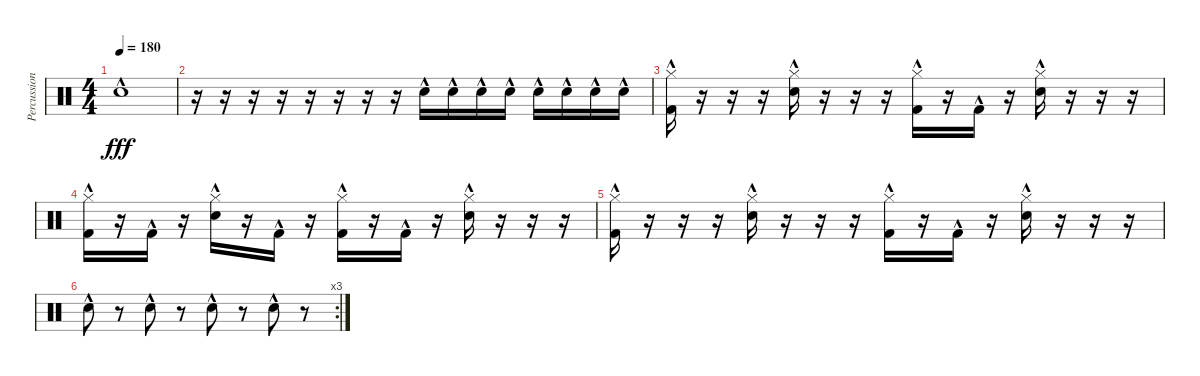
\track ("Percussion" "Percussion") {instrument percussion bank 2}
\staff {score}
\articulation defaults
\ts (4 4)
\tempo 180
\clef neutral
\ks c "Snare (hit) 2"{hac}.1{dy fff}
|
r.16 r.16 r.16 r.16 r.16 r.16 r.16 r.16 "Snare (hit) 2"{hac}.16 "Snare (hit) 2"{hac}.16 "Snare (hit) 2"{hac}.16 "Snare (hit) 2"{hac}.16 "Snare (hit) 2"{hac}.16 "Snare (hit) 2"{hac}.16 "Snare (hit) 2"{hac}.16 "Snare (hit) 2"{hac}.16 |
("Hi-Hat (closed)"{hac} "Kick (hit) 2"{hac}).16 r.16 r.16 r.16 ("Hi-Hat (closed)"{hac} "Snare (hit) 2"{hac}).16 r.16 r.16 r.16 ("Hi-Hat (closed)"{hac} "Kick (hit) 2"{hac}).16 r.16 "Kick (hit) 2"{hac}.16 r.16 ("Hi-Hat (closed)"{hac} "Snare (hit) 2"{hac}).16 r.16 r.16 r.16 |
("Hi-Hat (closed)"{hac} "Kick (hit) 2"{hac}).16 r.16 "Kick (hit) 2"{hac}.16 r.16 ("Hi-Hat (closed)"{hac} "Snare (hit) 2"{hac}).16 r.16 "Kick (hit) 2"{hac}.16 r.16 ("Hi-Hat (closed)"{hac} "Kick (hit) 2"{hac}).16 r.16 "Kick (hit) 2"{hac}.16 r.16 ("Hi-Hat (closed)"{hac} "Snare (hit) 2"{hac}).16 r.16 r.16 r.16 |
("Hi-Hat (closed)"{hac} "Kick (hit) 2"{hac}).16 r.16 r.16 r.16 ("Hi-Hat (closed)"{hac} "Snare (hit) 2"{hac}).16 r.16 r.16 r.16 ("Hi-Hat (closed)"{hac} "Kick (hit) 2"{hac}).16 r.16 "Kick (hit) 2"{hac}.16 r.16 ("Hi-Hat (closed)"{hac} "Snare (hit) 2"{hac}).16 r.16 r.16 r.16 |
\rc 3 "Snare (hit) 2"{hac}.8
r.8 "Snare (hit) 2"{hac}.8 r.8 "Snare (hit) 2"{hac}.8 r.8 "Snare (hit) 2"{hac}.8 r.8
